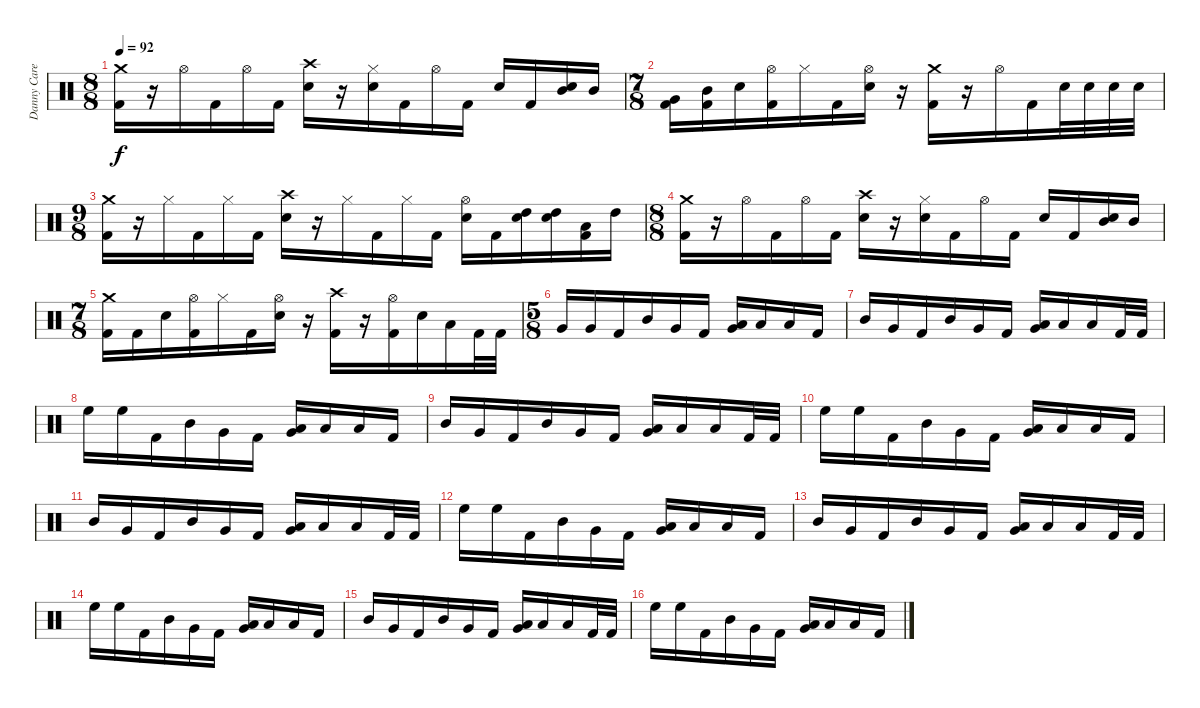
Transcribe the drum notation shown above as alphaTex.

\track ("Danny Carey" "Danny Care") {instrument percussion}
\staff {score}
\articulation defaults
\ts (8 8)
\tempo 92
\clef neutral
\ks c
("Crash medium (hit)" "Kick (hit) 2").16{dy f} r.16 "Hi-Hat (open)".16 "Kick (hit) 2".16 "Hi-Hat (open)".16 "Kick (hit) 2".16 ("Crash high (hit)" "Electric Snare (hit)").16 r.16 ("Hi-Hat (closed)" "Electric Snare (hit)").16 "Kick (hit) 2".16 "Hi-Hat (open)".16 "Kick (hit) 2".16 "Electric Snare (hit)".16 "Kick (hit) 2".16 ("Mid Tom (hit)" "Electric Snare (hit)").16 "Mid Tom (hit)".16 |
\ts (7 8)
("Very Low Tom (hit)" "Kick (hit) 2").16 ("Mid Tom (hit)" "Kick (hit) 2").16 "Electric Snare (hit)".16 ("Hi-Hat (open)" "Kick (hit) 2").16 "Hi-Hat (closed)".16 "Kick (hit) 2".16 ("Hi-Hat (open)" "Electric Snare (hit)").16 r.16 ("Crash medium (hit)" "Kick (hit) 2").16 r.16 "Hi-Hat (open)".16 "Kick (hit) 2".16 "Electric Snare (hit)".32 "Electric Snare (hit)".32 "Electric Snare (hit)".32 "Electric Snare (hit)".32 |
\ts (9 8)
("Crash medium (hit)" "Kick (hit) 2").16 r.16 "Hi-Hat (closed)".16 "Kick (hit) 2".16 "Hi-Hat (closed)".16 "Kick (hit) 2".16 ("Crash high (hit)" "Electric Snare (hit)").16 r.16 "Hi-Hat (closed)".16 "Kick (hit) 2".16 "Hi-Hat (closed)".16 "Kick (hit) 2".16 ("Hi-Hat (open)" "Electric Snare (hit)").16 "Kick (hit) 2".16 ("High Tom (hit)" "Electric Snare (hit)").16 ("High Tom (hit)" "Electric Snare (hit)").16 ("Low Tom (hit)" "Kick (hit) 2").16 "High Tom (hit)".16 |
\ts (8 8)
("Crash medium (hit)" "Kick (hit) 2").16 r.16 "Hi-Hat (open)".16 "Kick (hit) 2".16 "Hi-Hat (open)".16 "Kick (hit) 2".16 ("Crash high (hit)" "Electric Snare (hit)").16 r.16 ("Hi-Hat (closed)" "Electric Snare (hit)").16 "Kick (hit) 2".16 "Hi-Hat (open)".16 "Kick (hit) 2".16 "Electric Snare (hit)".16 "Kick (hit) 2".16 ("Mid Tom (hit)" "Electric Snare (hit)").16 "Mid Tom (hit)".16 |
\ts (7 8)
("Crash medium (hit)" "Kick (hit) 2").16 "Kick (hit) 2".16 "Electric Snare (hit)".16 ("Hi-Hat (open)" "Kick (hit) 2").16 "Hi-Hat (closed)".16 "Kick (hit) 2".16 ("Hi-Hat (open)" "Electric Snare (hit)").16 r.16 ("Crash high (hit)" "Kick (hit) 2").16 r.16 ("Hi-Hat (open)" "Kick (hit) 2").16 "Electric Snare (hit)".16 "Low Floor Tom (hit)".16 "Kick (hit) 2".32 "Kick (hit) 2".32 |
\ts (5 8)
"Very Low Tom (hit)".16 "Very Low Tom (hit)".16 "Kick (hit) 2".16 "Mid Tom (hit)".16 "Very Low Tom (hit)".16 "Kick (hit) 2".16 ("Low Floor Tom (hit)" "Very Low Tom (hit)").16 "Low Floor Tom (hit)".16 "Low Floor Tom (hit)".16 "Kick (hit) 2".16 |
"Mid Tom (hit)".16 "Very Low Tom (hit)".16 "Kick (hit) 2".16 "Mid Tom (hit)".16 "Very Low Tom (hit)".16 "Kick (hit) 2".16 ("Low Floor Tom (hit)" "Very Low Tom (hit)").16 "Low Floor Tom (hit)".16 "Low Floor Tom (hit)".16 "Kick (hit) 2".32 "Kick (hit) 2".32 |
"High Floor Tom (hit)".16 "High Floor Tom (hit)".16 "Kick (hit) 2".16 "Mid Tom (hit)".16 "Very Low Tom (hit)".16 "Kick (hit) 2".16 ("Low Floor Tom (hit)" "Very Low Tom (hit)").16 "Low Floor Tom (hit)".16 "Low Floor Tom (hit)".16 "Kick (hit) 2".16 |
"Mid Tom (hit)".16 "Very Low Tom (hit)".16 "Kick (hit) 2".16 "Mid Tom (hit)".16 "Very Low Tom (hit)".16 "Kick (hit) 2".16 ("Low Floor Tom (hit)" "Very Low Tom (hit)").16 "Low Floor Tom (hit)".16 "Low Floor Tom (hit)".16 "Kick (hit) 2".32 "Kick (hit) 2".32 |
"High Floor Tom (hit)".16 "High Floor Tom (hit)".16 "Kick (hit) 2".16 "Mid Tom (hit)".16 "Very Low Tom (hit)".16 "Kick (hit) 2".16 ("Low Floor Tom (hit)" "Very Low Tom (hit)").16 "Low Floor Tom (hit)".16 "Low Floor Tom (hit)".16 "Kick (hit) 2".16 |
"Mid Tom (hit)".16 "Very Low Tom (hit)".16 "Kick (hit) 2".16 "Mid Tom (hit)".16 "Very Low Tom (hit)".16 "Kick (hit) 2".16 ("Low Floor Tom (hit)" "Very Low Tom (hit)").16 "Low Floor Tom (hit)".16 "Low Floor Tom (hit)".16 "Kick (hit) 2".32 "Kick (hit) 2".32 |
"High Floor Tom (hit)".16 "High Floor Tom (hit)".16 "Kick (hit) 2".16 "Mid Tom (hit)".16 "Very Low Tom (hit)".16 "Kick (hit) 2".16 ("Low Floor Tom (hit)" "Very Low Tom (hit)").16 "Low Floor Tom (hit)".16 "Low Floor Tom (hit)".16 "Kick (hit) 2".16 |
"Mid Tom (hit)".16 "Very Low Tom (hit)".16 "Kick (hit) 2".16 "Mid Tom (hit)".16 "Very Low Tom (hit)".16 "Kick (hit) 2".16 ("Low Floor Tom (hit)" "Very Low Tom (hit)").16 "Low Floor Tom (hit)".16 "Low Floor Tom (hit)".16 "Kick (hit) 2".32 "Kick (hit) 2".32 |
"High Floor Tom (hit)".16 "High Floor Tom (hit)".16 "Kick (hit) 2".16 "Mid Tom (hit)".16 "Very Low Tom (hit)".16 "Kick (hit) 2".16 ("Low Floor Tom (hit)" "Very Low Tom (hit)").16 "Low Floor Tom (hit)".16 "Low Floor Tom (hit)".16 "Kick (hit) 2".16 |
"Mid Tom (hit)".16 "Very Low Tom (hit)".16 "Kick (hit) 2".16 "Mid Tom (hit)".16 "Very Low Tom (hit)".16 "Kick (hit) 2".16 ("Low Floor Tom (hit)" "Very Low Tom (hit)").16 "Low Floor Tom (hit)".16 "Low Floor Tom (hit)".16 "Kick (hit) 2".32 "Kick (hit) 2".32 |
"High Floor Tom (hit)".16 "High Floor Tom (hit)".16 "Kick (hit) 2".16 "Mid Tom (hit)".16 "Very Low Tom (hit)".16 "Kick (hit) 2".16 ("Low Floor Tom (hit)" "Very Low Tom (hit)").16 "Low Floor Tom (hit)".16 "Low Floor Tom (hit)".16 "Kick (hit) 2".16
